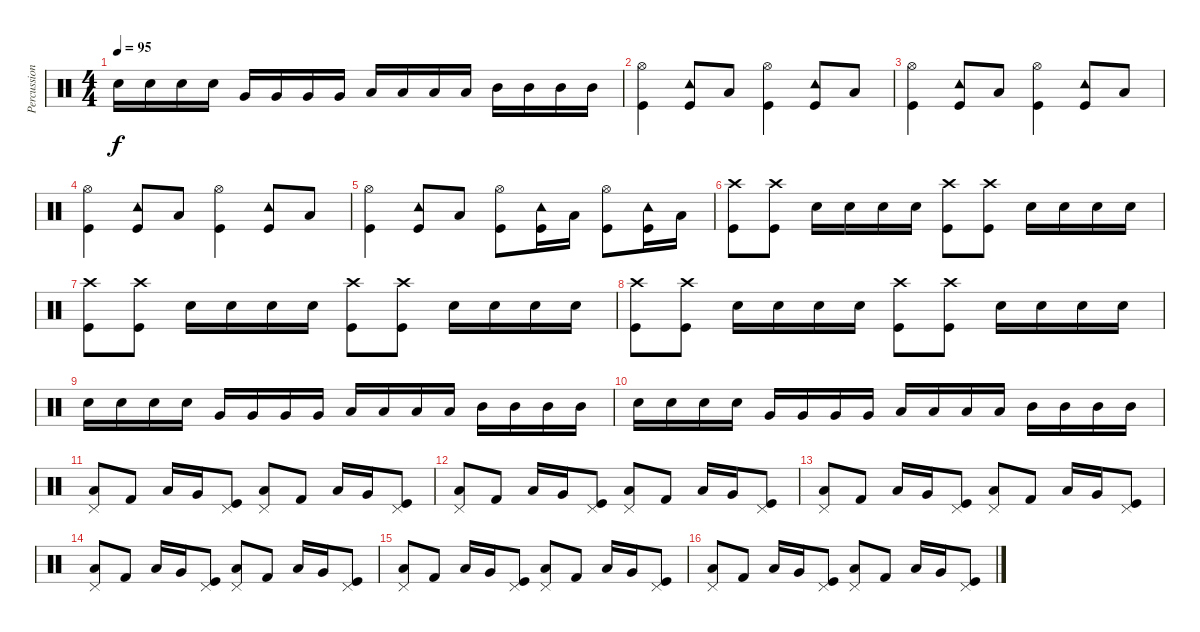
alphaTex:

\track ("Percussion" "Percussion") {instrument percussion}
\staff {score}
\articulation defaults
\ts (4 4)
\tempo 95
\clef neutral
\ks c "Electric Snare (hit)".16{dy f} "Electric Snare (hit)".16 "Electric Snare (hit)".16 "Electric Snare (hit)".16 "Very Low Tom (hit)".16 "Very Low Tom (hit)".16 "Very Low Tom (hit)".16 "Very Low Tom (hit)".16 "Low Tom (hit)".16 "Low Tom (hit)".16 "Low Tom (hit)".16 "Low Tom (hit)".16 "Mid Tom (hit)".16 "Mid Tom (hit)".16 "Mid Tom (hit)".16 "Mid Tom (hit)".16
|
("Hi-Hat (open)" "Kick (hit)").4 ("Tambourine (hit)" "Kick (hit)").8 "Low Tom (hit)".8 ("Hi-Hat (open)" "Kick (hit)").4 ("Tambourine (hit)" "Kick (hit)").8 "Low Tom (hit)".8 |
("Hi-Hat (open)" "Kick (hit)").4 ("Tambourine (hit)" "Kick (hit)").8 "Low Tom (hit)".8 ("Hi-Hat (open)" "Kick (hit)").4 ("Tambourine (hit)" "Kick (hit)").8 "Low Tom (hit)".8 |
("Hi-Hat (open)" "Kick (hit)").4 ("Tambourine (hit)" "Kick (hit)").8 "Low Tom (hit)".8 ("Hi-Hat (open)" "Kick (hit)").4 ("Tambourine (hit)" "Kick (hit)").8 "Low Tom (hit)".8 |
("Hi-Hat (open)" "Kick (hit)").4 ("Tambourine (hit)" "Kick (hit)").8 "Low Tom (hit)".8 ("Hi-Hat (open)" "Kick (hit)").8 ("Tambourine (hit)" "Kick (hit)").16 "Low Tom (hit)".16 ("Hi-Hat (open)" "Kick (hit)").8 ("Tambourine (hit)" "Kick (hit)").16 "Low Tom (hit)".16 |
("Crash high (hit)" "Kick (hit)").8 ("Crash high (hit)" "Kick (hit)").8 "Electric Snare (hit)".16 "Electric Snare (hit)".16 "Electric Snare (hit)".16 "Electric Snare (hit)".16 ("Crash high (hit)" "Kick (hit)").8 ("Crash high (hit)" "Kick (hit)").8 "Electric Snare (hit)".16 "Electric Snare (hit)".16 "Electric Snare (hit)".16 "Electric Snare (hit)".16 |
("Crash high (hit)" "Kick (hit)").8 ("Crash high (hit)" "Kick (hit)").8 "Electric Snare (hit)".16 "Electric Snare (hit)".16 "Electric Snare (hit)".16 "Electric Snare (hit)".16 ("Crash high (hit)" "Kick (hit)").8 ("Crash high (hit)" "Kick (hit)").8 "Electric Snare (hit)".16 "Electric Snare (hit)".16 "Electric Snare (hit)".16 "Electric Snare (hit)".16 |
("Crash high (hit)" "Kick (hit)").8 ("Crash high (hit)" "Kick (hit)").8 "Electric Snare (hit)".16 "Electric Snare (hit)".16 "Electric Snare (hit)".16 "Electric Snare (hit)".16 ("Crash high (hit)" "Kick (hit)").8 ("Crash high (hit)" "Kick (hit)").8 "Electric Snare (hit)".16 "Electric Snare (hit)".16 "Electric Snare (hit)".16 "Electric Snare (hit)".16 |
"Electric Snare (hit)".16 "Electric Snare (hit)".16 "Electric Snare (hit)".16 "Electric Snare (hit)".16 "Very Low Tom (hit)".16 "Very Low Tom (hit)".16 "Very Low Tom (hit)".16 "Very Low Tom (hit)".16 "Low Tom (hit)".16 "Low Tom (hit)".16 "Low Tom (hit)".16 "Low Tom (hit)".16 "Mid Tom (hit)".16 "Mid Tom (hit)".16 "Mid Tom (hit)".16 "Mid Tom (hit)".16 |
"Electric Snare (hit)".16 "Electric Snare (hit)".16 "Electric Snare (hit)".16 "Electric Snare (hit)".16 "Very Low Tom (hit)".16 "Very Low Tom (hit)".16 "Very Low Tom (hit)".16 "Very Low Tom (hit)".16 "Low Tom (hit)".16 "Low Tom (hit)".16 "Low Tom (hit)".16 "Low Tom (hit)".16 "Mid Tom (hit)".16 "Mid Tom (hit)".16 "Mid Tom (hit)".16 "Mid Tom (hit)".16 |
("Pedal Hi-Hat (hit)" "Low Tom (hit)").8 "Kick (hit) 2".8 "Low Tom (hit)".16 "Very Low Tom (hit)".16 ("Pedal Hi-Hat (hit)" "Kick (hit)").8 ("Pedal Hi-Hat (hit)" "Low Tom (hit)").8 "Kick (hit) 2".8 "Low Tom (hit)".16 "Very Low Tom (hit)".16 ("Pedal Hi-Hat (hit)" "Kick (hit)").8 |
("Pedal Hi-Hat (hit)" "Low Tom (hit)").8 "Kick (hit) 2".8 "Low Tom (hit)".16 "Very Low Tom (hit)".16 ("Pedal Hi-Hat (hit)" "Kick (hit)").8 ("Pedal Hi-Hat (hit)" "Low Tom (hit)").8 "Kick (hit) 2".8 "Low Tom (hit)".16 "Very Low Tom (hit)".16 ("Pedal Hi-Hat (hit)" "Kick (hit)").8 |
("Pedal Hi-Hat (hit)" "Low Tom (hit)").8 "Kick (hit) 2".8 "Low Tom (hit)".16 "Very Low Tom (hit)".16 ("Pedal Hi-Hat (hit)" "Kick (hit)").8 ("Pedal Hi-Hat (hit)" "Low Tom (hit)").8 "Kick (hit) 2".8 "Low Tom (hit)".16 "Very Low Tom (hit)".16 ("Pedal Hi-Hat (hit)" "Kick (hit)").8 |
("Pedal Hi-Hat (hit)" "Low Tom (hit)").8 "Kick (hit) 2".8 "Low Tom (hit)".16 "Very Low Tom (hit)".16 ("Pedal Hi-Hat (hit)" "Kick (hit)").8 ("Pedal Hi-Hat (hit)" "Low Tom (hit)").8 "Kick (hit) 2".8 "Low Tom (hit)".16 "Very Low Tom (hit)".16 ("Pedal Hi-Hat (hit)" "Kick (hit)").8 |
("Pedal Hi-Hat (hit)" "Low Tom (hit)").8 "Kick (hit) 2".8 "Low Tom (hit)".16 "Very Low Tom (hit)".16 ("Pedal Hi-Hat (hit)" "Kick (hit)").8 ("Pedal Hi-Hat (hit)" "Low Tom (hit)").8 "Kick (hit) 2".8 "Low Tom (hit)".16 "Very Low Tom (hit)".16 ("Pedal Hi-Hat (hit)" "Kick (hit)").8 |
("Pedal Hi-Hat (hit)" "Low Tom (hit)").8 "Kick (hit) 2".8 "Low Tom (hit)".16 "Very Low Tom (hit)".16 ("Pedal Hi-Hat (hit)" "Kick (hit)").8 ("Pedal Hi-Hat (hit)" "Low Tom (hit)").8 "Kick (hit) 2".8 "Low Tom (hit)".16 "Very Low Tom (hit)".16 ("Pedal Hi-Hat (hit)" "Kick (hit)").8
